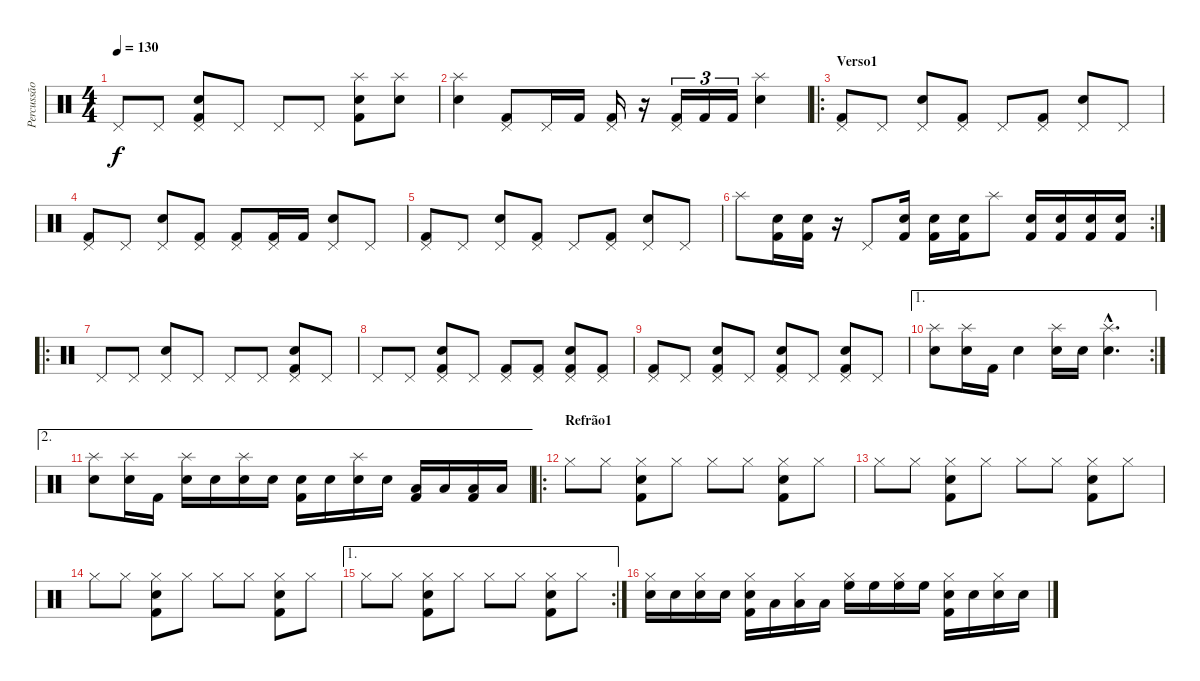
\track ("Percussão" "Percussão") {instrument percussion}
\staff {score}
\articulation defaults
\ts (4 4)
\tempo 130
\clef neutral
\ks c "Pedal Hi-Hat (hit)".8{dy f} "Pedal Hi-Hat (hit)".8
("Kick (hit) 2" "Snare (hit) 2" "Pedal Hi-Hat (hit)").8 "Pedal Hi-Hat (hit)".8 "Pedal Hi-Hat (hit)".8 "Pedal Hi-Hat (hit)".8 ("Kick (hit) 2" "Snare (hit) 2" "Splash (hit)").8 ("Snare (hit) 2" "Splash (hit)").8 |
("Snare (hit) 2" "Splash (hit)").4 ("Kick (hit) 2" "Pedal Hi-Hat (hit)").8 "Pedal Hi-Hat (hit)".16 "Kick (hit) 2".16 ("Kick (hit) 2" "Pedal Hi-Hat (hit)").16 r.16 ("Kick (hit) 2" "Pedal Hi-Hat (hit)").16{tu (3 2)} "Kick (hit) 2".16{tu (3 2)} "Kick (hit) 2".16{tu (3 2)} ("Snare (hit) 2" "Splash (hit)").4 |
\ro
\section ("" "Verso1")
("Kick (hit) 2" "Pedal Hi-Hat (hit)").8 "Pedal Hi-Hat (hit)".8 ("Snare (hit) 2" "Pedal Hi-Hat (hit)").8 ("Kick (hit) 2" "Pedal Hi-Hat (hit)").8 "Pedal Hi-Hat (hit)".8 ("Kick (hit) 2" "Pedal Hi-Hat (hit)").8 ("Snare (hit) 2" "Pedal Hi-Hat (hit)").8 "Pedal Hi-Hat (hit)".8 |
("Kick (hit) 2" "Pedal Hi-Hat (hit)").8 "Pedal Hi-Hat (hit)".8 ("Snare (hit) 2" "Pedal Hi-Hat (hit)").8 ("Kick (hit) 2" "Pedal Hi-Hat (hit)").8 ("Kick (hit) 2" "Pedal Hi-Hat (hit)").8 ("Kick (hit) 2" "Pedal Hi-Hat (hit)").16 "Kick (hit) 2".16 ("Snare (hit) 2" "Pedal Hi-Hat (hit)").8 "Pedal Hi-Hat (hit)".8 |
("Kick (hit) 2" "Pedal Hi-Hat (hit)").8 "Pedal Hi-Hat (hit)".8 ("Snare (hit) 2" "Pedal Hi-Hat (hit)").8 ("Kick (hit) 2" "Pedal Hi-Hat (hit)").8 "Pedal Hi-Hat (hit)".8 ("Kick (hit) 2" "Pedal Hi-Hat (hit)").8 ("Snare (hit) 2" "Pedal Hi-Hat (hit)").8 "Pedal Hi-Hat (hit)".8 |
\rc 2 "Splash (hit)".8
("Kick (hit) 2" "Snare (hit) 2").16 ("Kick (hit) 2" "Snare (hit) 2").16 r.16 "Pedal Hi-Hat (hit)".8 ("Kick (hit) 2" "Snare (hit) 2").16 ("Kick (hit) 2" "Snare (hit) 2").16 ("Kick (hit) 2" "Snare (hit) 2").16 "Splash (hit)".8 ("Kick (hit) 2" "Snare (hit) 2").16 ("Kick (hit) 2" "Snare (hit) 2").16 ("Kick (hit) 2" "Snare (hit) 2").16 ("Kick (hit) 2" "Snare (hit) 2").16 |
\ro "Pedal Hi-Hat (hit)".8 "Pedal Hi-Hat (hit)".8
("Snare (hit) 2" "Pedal Hi-Hat (hit)").8 "Pedal Hi-Hat (hit)".8 "Pedal Hi-Hat (hit)".8 "Pedal Hi-Hat (hit)".8 ("Kick (hit) 2" "Snare (hit) 2" "Pedal Hi-Hat (hit)").8 "Pedal Hi-Hat (hit)".8 |
"Pedal Hi-Hat (hit)".8 "Pedal Hi-Hat (hit)".8 ("Kick (hit) 2" "Snare (hit) 2" "Pedal Hi-Hat (hit)").8 "Pedal Hi-Hat (hit)".8 ("Kick (hit) 2" "Pedal Hi-Hat (hit)").8 ("Kick (hit) 2" "Pedal Hi-Hat (hit)").8 ("Kick (hit) 2" "Snare (hit) 2" "Pedal Hi-Hat (hit)").8 ("Kick (hit) 2" "Pedal Hi-Hat (hit)").8 |
("Kick (hit) 2" "Pedal Hi-Hat (hit)").8 "Pedal Hi-Hat (hit)".8 ("Kick (hit) 2" "Snare (hit) 2" "Pedal Hi-Hat (hit)").8 "Pedal Hi-Hat (hit)".8 ("Kick (hit) 2" "Snare (hit) 2" "Pedal Hi-Hat (hit)").8 "Pedal Hi-Hat (hit)".8 ("Kick (hit) 2" "Snare (hit) 2" "Pedal Hi-Hat (hit)").8 "Pedal Hi-Hat (hit)".8 |
\ae 1
\rc 2
("Snare (hit) 2" "Splash (hit)").8 ("Snare (hit) 2" "Splash (hit)").16 "Kick (hit) 2".16 "Snare (hit) 2".4 ("Snare (hit) 2" "Splash (hit)").16 "Snare (hit) 2".16 ("Snare (hit) 2"{hac} "Splash (hit)"{hac}).4{d} |
\ae 2
("Snare (hit) 2" "Splash (hit)").8 ("Snare (hit) 2" "Splash (hit)").16 "Kick (hit) 2".16 ("Snare (hit) 2" "Splash (hit)").16 "Snare (hit) 2".16 ("Snare (hit) 2" "Splash (hit)").16 "Snare (hit) 2".16 ("Kick (hit) 2" "Snare (hit) 2").16 "Snare (hit) 2".16 ("Snare (hit) 2" "Splash (hit)").16 "Snare (hit) 2".16 ("Kick (hit) 2" "Low Tom (hit)").16 "Low Tom (hit)".16 ("Kick (hit) 2" "Low Tom (hit)").16 "Low Tom (hit)".16 |
\ro
\section ("" "Refrão1")
"Hi-Hat (closed)".8 "Hi-Hat (closed)".8 ("Kick (hit) 2" "Snare (hit) 2" "Hi-Hat (closed)").8 "Hi-Hat (closed)".8 "Hi-Hat (closed)".8 "Hi-Hat (closed)".8 ("Kick (hit) 2" "Snare (hit) 2" "Hi-Hat (closed)").8 "Hi-Hat (closed)".8 |
"Hi-Hat (closed)".8 "Hi-Hat (closed)".8 ("Kick (hit) 2" "Snare (hit) 2" "Hi-Hat (closed)").8 "Hi-Hat (closed)".8 "Hi-Hat (closed)".8 "Hi-Hat (closed)".8 ("Kick (hit) 2" "Snare (hit) 2" "Hi-Hat (closed)").8 "Hi-Hat (closed)".8 |
"Hi-Hat (closed)".8 "Hi-Hat (closed)".8 ("Kick (hit) 2" "Snare (hit) 2" "Hi-Hat (closed)").8 "Hi-Hat (closed)".8 "Hi-Hat (closed)".8 "Hi-Hat (closed)".8 ("Kick (hit) 2" "Snare (hit) 2" "Hi-Hat (closed)").8 "Hi-Hat (closed)".8 |
\ae 1
\rc 2 "Hi-Hat (closed)".8 "Hi-Hat (closed)".8
("Kick (hit) 2" "Snare (hit) 2" "Hi-Hat (closed)").8 "Hi-Hat (closed)".8 "Hi-Hat (closed)".8 "Hi-Hat (closed)".8 ("Kick (hit) 2" "Snare (hit) 2" "Hi-Hat (closed)").8 "Hi-Hat (closed)".8 |
("Snare (hit) 2" "Hi-Hat (closed)").16 "Snare (hit) 2".16 ("Snare (hit) 2" "Hi-Hat (closed)").16 "Snare (hit) 2".16 ("Kick (hit) 2" "Snare (hit) 2" "Hi-Hat (closed)").16 "Low Tom (hit)".16 ("Low Tom (hit)" "Hi-Hat (closed)").16 "Low Tom (hit)".16 ("High Floor Tom (hit)" "Hi-Hat (closed)").16 "High Floor Tom (hit)".16 ("High Floor Tom (hit)" "Hi-Hat (closed)").16 "High Floor Tom (hit)".16 ("Kick (hit) 2" "Snare (hit) 2" "Hi-Hat (closed)").16 "Snare (hit) 2".16 ("Snare (hit) 2" "Hi-Hat (closed)").16 "Snare (hit) 2".16
